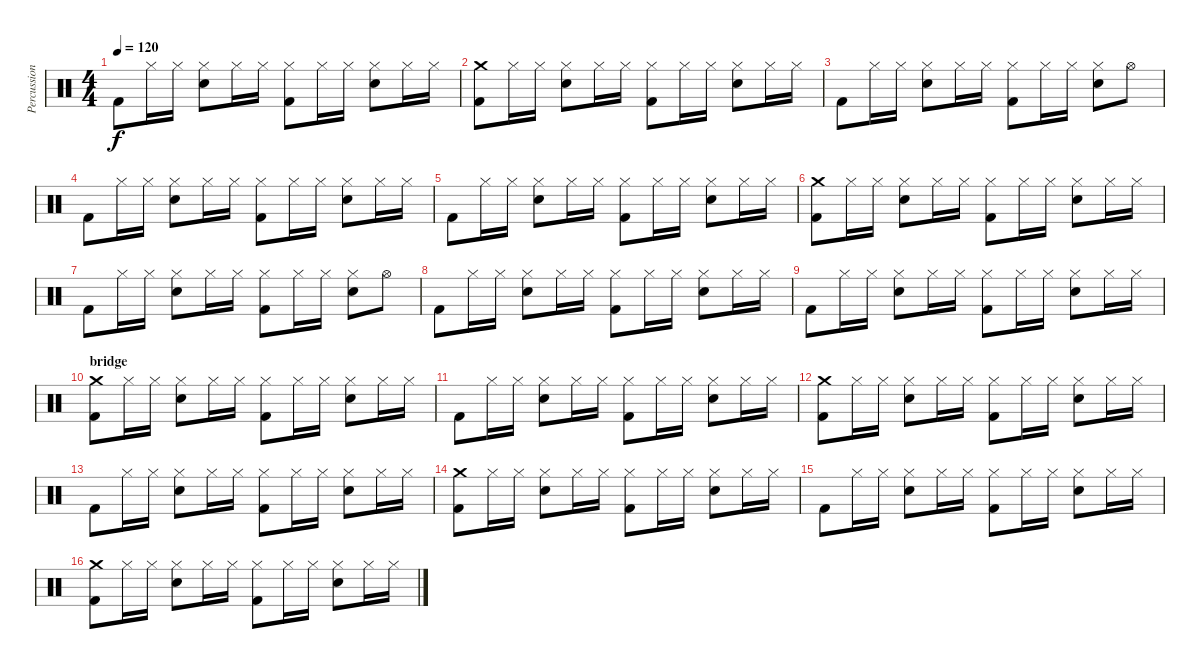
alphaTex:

\track ("Percussion" "Percussion") {instrument percussion}
\staff {score}
\articulation defaults
\ts (4 4)
\tempo 120
\clef neutral
\ks c "Kick (hit) 2".8{dy f} "Hi-Hat (closed)".16 "Hi-Hat (closed)".16
("Hi-Hat (closed)" "Snare (hit) 2").8 "Hi-Hat (closed)".16 "Hi-Hat (closed)".16 ("Hi-Hat (closed)" "Kick (hit) 2").8 "Hi-Hat (closed)".16 "Hi-Hat (closed)".16 ("Hi-Hat (closed)" "Snare (hit) 2").8 "Hi-Hat (closed)".16 "Hi-Hat (closed)".16 |
("Crash medium (hit)" "Kick (hit) 2").8 "Hi-Hat (closed)".16 "Hi-Hat (closed)".16 ("Hi-Hat (closed)" "Snare (hit) 2").8 "Hi-Hat (closed)".16 "Hi-Hat (closed)".16 ("Hi-Hat (closed)" "Kick (hit) 2").8 "Hi-Hat (closed)".16 "Hi-Hat (closed)".16 ("Hi-Hat (closed)" "Snare (hit) 2").8 "Hi-Hat (closed)".16 "Hi-Hat (closed)".16 |
"Kick (hit) 2".8 "Hi-Hat (closed)".16 "Hi-Hat (closed)".16 ("Hi-Hat (closed)" "Snare (hit) 2").8 "Hi-Hat (closed)".16 "Hi-Hat (closed)".16 ("Hi-Hat (closed)" "Kick (hit) 2").8 "Hi-Hat (closed)".16 "Hi-Hat (closed)".16 ("Hi-Hat (closed)" "Snare (hit) 2").8 "Hi-Hat (open)".8 |
"Kick (hit) 2".8 "Hi-Hat (closed)".16 "Hi-Hat (closed)".16 ("Hi-Hat (closed)" "Snare (hit) 2").8 "Hi-Hat (closed)".16 "Hi-Hat (closed)".16 ("Hi-Hat (closed)" "Kick (hit) 2").8 "Hi-Hat (closed)".16 "Hi-Hat (closed)".16 ("Hi-Hat (closed)" "Snare (hit) 2").8 "Hi-Hat (closed)".16 "Hi-Hat (closed)".16 |
"Kick (hit) 2".8 "Hi-Hat (closed)".16 "Hi-Hat (closed)".16 ("Hi-Hat (closed)" "Snare (hit) 2").8 "Hi-Hat (closed)".16 "Hi-Hat (closed)".16 ("Hi-Hat (closed)" "Kick (hit) 2").8 "Hi-Hat (closed)".16 "Hi-Hat (closed)".16 ("Hi-Hat (closed)" "Snare (hit) 2").8 "Hi-Hat (closed)".16 "Hi-Hat (closed)".16 |
("Crash medium (hit)" "Kick (hit) 2").8 "Hi-Hat (closed)".16 "Hi-Hat (closed)".16 ("Hi-Hat (closed)" "Snare (hit) 2").8 "Hi-Hat (closed)".16 "Hi-Hat (closed)".16 ("Hi-Hat (closed)" "Kick (hit) 2").8 "Hi-Hat (closed)".16 "Hi-Hat (closed)".16 ("Hi-Hat (closed)" "Snare (hit) 2").8 "Hi-Hat (closed)".16 "Hi-Hat (closed)".16 |
"Kick (hit) 2".8 "Hi-Hat (closed)".16 "Hi-Hat (closed)".16 ("Hi-Hat (closed)" "Snare (hit) 2").8 "Hi-Hat (closed)".16 "Hi-Hat (closed)".16 ("Hi-Hat (closed)" "Kick (hit) 2").8 "Hi-Hat (closed)".16 "Hi-Hat (closed)".16 ("Hi-Hat (closed)" "Snare (hit) 2").8 "Hi-Hat (open)".8 |
"Kick (hit) 2".8 "Hi-Hat (closed)".16 "Hi-Hat (closed)".16 ("Hi-Hat (closed)" "Snare (hit) 2").8 "Hi-Hat (closed)".16 "Hi-Hat (closed)".16 ("Hi-Hat (closed)" "Kick (hit) 2").8 "Hi-Hat (closed)".16 "Hi-Hat (closed)".16 ("Hi-Hat (closed)" "Snare (hit) 2").8 "Hi-Hat (closed)".16 "Hi-Hat (closed)".16 |
"Kick (hit) 2".8 "Hi-Hat (closed)".16 "Hi-Hat (closed)".16 ("Hi-Hat (closed)" "Snare (hit) 2").8 "Hi-Hat (closed)".16 "Hi-Hat (closed)".16 ("Hi-Hat (closed)" "Kick (hit) 2").8 "Hi-Hat (closed)".16 "Hi-Hat (closed)".16 ("Hi-Hat (closed)" "Snare (hit) 2").8 "Hi-Hat (closed)".16 "Hi-Hat (closed)".16 |
\section ("" "bridge")
("Crash medium (hit)" "Kick (hit) 2").8 "Hi-Hat (closed)".16 "Hi-Hat (closed)".16 ("Hi-Hat (closed)" "Snare (hit) 2").8 "Hi-Hat (closed)".16 "Hi-Hat (closed)".16 ("Hi-Hat (closed)" "Kick (hit) 2").8 "Hi-Hat (closed)".16 "Hi-Hat (closed)".16 ("Hi-Hat (closed)" "Snare (hit) 2").8 "Hi-Hat (closed)".16 "Hi-Hat (closed)".16 |
"Kick (hit) 2".8 "Hi-Hat (closed)".16 "Hi-Hat (closed)".16 ("Hi-Hat (closed)" "Snare (hit) 2").8 "Hi-Hat (closed)".16 "Hi-Hat (closed)".16 ("Hi-Hat (closed)" "Kick (hit) 2").8 "Hi-Hat (closed)".16 "Hi-Hat (closed)".16 ("Hi-Hat (closed)" "Snare (hit) 2").8 "Hi-Hat (closed)".16 "Hi-Hat (closed)".16 |
("Crash medium (hit)" "Kick (hit) 2").8 "Hi-Hat (closed)".16 "Hi-Hat (closed)".16 ("Hi-Hat (closed)" "Snare (hit) 2").8 "Hi-Hat (closed)".16 "Hi-Hat (closed)".16 ("Hi-Hat (closed)" "Kick (hit) 2").8 "Hi-Hat (closed)".16 "Hi-Hat (closed)".16 ("Hi-Hat (closed)" "Snare (hit) 2").8 "Hi-Hat (closed)".16 "Hi-Hat (closed)".16 |
"Kick (hit) 2".8 "Hi-Hat (closed)".16 "Hi-Hat (closed)".16 ("Hi-Hat (closed)" "Snare (hit) 2").8 "Hi-Hat (closed)".16 "Hi-Hat (closed)".16 ("Hi-Hat (closed)" "Kick (hit) 2").8 "Hi-Hat (closed)".16 "Hi-Hat (closed)".16 ("Hi-Hat (closed)" "Snare (hit) 2").8 "Hi-Hat (closed)".16 "Hi-Hat (closed)".16 |
("Crash medium (hit)" "Kick (hit) 2").8 "Hi-Hat (closed)".16 "Hi-Hat (closed)".16 ("Hi-Hat (closed)" "Snare (hit) 2").8 "Hi-Hat (closed)".16 "Hi-Hat (closed)".16 ("Hi-Hat (closed)" "Kick (hit) 2").8 "Hi-Hat (closed)".16 "Hi-Hat (closed)".16 ("Hi-Hat (closed)" "Snare (hit) 2").8 "Hi-Hat (closed)".16 "Hi-Hat (closed)".16 |
"Kick (hit) 2".8 "Hi-Hat (closed)".16 "Hi-Hat (closed)".16 ("Hi-Hat (closed)" "Snare (hit) 2").8 "Hi-Hat (closed)".16 "Hi-Hat (closed)".16 ("Hi-Hat (closed)" "Kick (hit) 2").8 "Hi-Hat (closed)".16 "Hi-Hat (closed)".16 ("Hi-Hat (closed)" "Snare (hit) 2").8 "Hi-Hat (closed)".16 "Hi-Hat (closed)".16 |
("Crash medium (hit)" "Kick (hit) 2").8 "Hi-Hat (closed)".16 "Hi-Hat (closed)".16 ("Hi-Hat (closed)" "Snare (hit) 2").8 "Hi-Hat (closed)".16 "Hi-Hat (closed)".16 ("Hi-Hat (closed)" "Kick (hit) 2").8 "Hi-Hat (closed)".16 "Hi-Hat (closed)".16 ("Hi-Hat (closed)" "Snare (hit) 2").8 "Hi-Hat (closed)".16 "Hi-Hat (closed)".16
